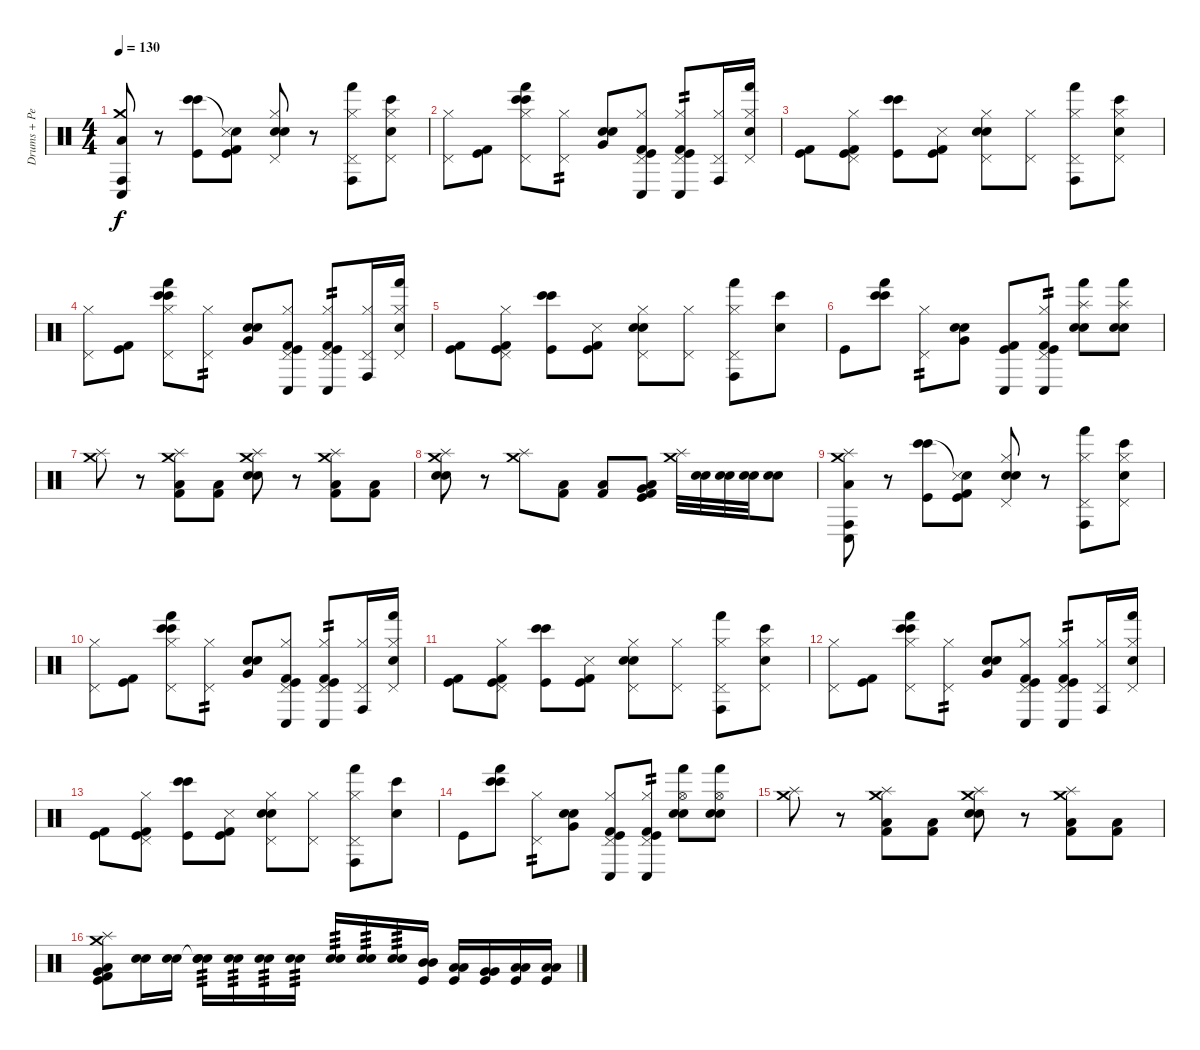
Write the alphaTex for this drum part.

\track ("Drums + Percussions (Dave Chavarri)" "Drums + Pe") {instrument percussion}
\staff {score}
\articulation defaults
\ts (4 4)
\tempo 130
\clef neutral
\ks c
("Crash medium (hit)" "Conga low (hit)" "Low Floor Tom (hit)" "Conga high (hit)").8{dy f} r.8 ("Bongo High (hit)" "Bongo High (hit)" "Kick (hit)").8 ("Snare (hit)"{t} "Snare (side stick) 3" "Kick (hit) 2" "Kick (hit)").8 ("Pedal Hi-Hat (hit)" "Hi-Hat (closed)" "Electric Snare (hit)" "Electric Snare (hit)").8 r.8 ("Pedal Hi-Hat (hit)" "Hi-Hat (closed)" "Hand (hit)" "Conga high (hit)").8 ("Pedal Hi-Hat (hit)" "Hi-Hat (closed)" "Electric Snare (hit)" "Bongo High (hit)").8 |
("Pedal Hi-Hat (hit)" "Hi-Hat (closed)").8 ("Kick (hit) 2" "Kick (hit)").8 ("Hi-Hat (closed)" "Pedal Hi-Hat (hit)" "Bongo High (hit)" "Bongo High (hit)" "Hand (hit)").8 ("Pedal Hi-Hat (hit)" "Hi-Hat (closed)").8{tp 2} ("Electric Snare (hit)" "Electric Snare (hit)" "Very Low Tom (hit)").8 ("Pedal Hi-Hat (hit)" "Hi-Hat (closed)" "Conga low (hit)" "Kick (hit) 2" "Kick (hit)").8 ("Pedal Hi-Hat (hit)" "Hi-Hat (closed)" "Conga low (hit)" "Kick (hit)" "Kick (hit) 2").8{tp 2} ("Pedal Hi-Hat (hit)" "Hi-Hat (closed)" "Conga high (hit)").16 ("Pedal Hi-Hat (hit)" "Hi-Hat (closed)" "Hand (hit)" "Electric Snare (hit)").16 |
("Kick (hit) 2" "Kick (hit)").8 ("Pedal Hi-Hat (hit)" "Hi-Hat (closed)" "Kick (hit) 2" "Kick (hit)").8 ("Bongo High (hit)" "Bongo High (hit)" "Kick (hit)").8 ("Snare (side stick) 3" "Kick (hit) 2" "Kick (hit)").8 ("Pedal Hi-Hat (hit)" "Hi-Hat (closed)" "Electric Snare (hit)" "Electric Snare (hit)").8 ("Pedal Hi-Hat (hit)" "Hi-Hat (closed)").8 ("Pedal Hi-Hat (hit)" "Hi-Hat (closed)" "Hand (hit)" "Conga high (hit)").8 ("Pedal Hi-Hat (hit)" "Hi-Hat (closed)" "Electric Snare (hit)" "Bongo High (hit)").8 |
("Pedal Hi-Hat (hit)" "Hi-Hat (closed)").8 ("Kick (hit) 2" "Kick (hit)").8 ("Pedal Hi-Hat (hit)" "Hi-Hat (closed)" "Bongo High (hit)" "Bongo High (hit)" "Hand (hit)").8 ("Pedal Hi-Hat (hit)" "Hi-Hat (closed)").8{tp 2} ("Electric Snare (hit)" "Electric Snare (hit)" "Very Low Tom (hit)").8 ("Pedal Hi-Hat (hit)" "Hi-Hat (closed)" "Conga low (hit)" "Kick (hit) 2" "Kick (hit)").8 ("Pedal Hi-Hat (hit)" "Hi-Hat (closed)" "Conga low (hit)" "Kick (hit)" "Kick (hit) 2").8{tp 2} ("Pedal Hi-Hat (hit)" "Hi-Hat (closed)" "Conga high (hit)").16 ("Pedal Hi-Hat (hit)" "Hi-Hat (closed)" "Hand (hit)" "Electric Snare (hit)").16 |
("Kick (hit) 2" "Kick (hit)").8 ("Pedal Hi-Hat (hit)" "Hi-Hat (closed)" "Kick (hit) 2" "Kick (hit)").8 ("Bongo High (hit)" "Bongo High (hit)" "Kick (hit)").8 ("Snare (side stick) 3" "Kick (hit) 2" "Kick (hit)").8 ("Pedal Hi-Hat (hit)" "Hi-Hat (closed)" "Electric Snare (hit)" "Electric Snare (hit)").8 ("Pedal Hi-Hat (hit)" "Hi-Hat (closed)").8 ("Pedal Hi-Hat (hit)" "Hi-Hat (closed)" "Hand (hit)" "Conga high (hit)").8 ("Electric Snare (hit)" "Bongo High (hit)").8 |
"Kick (hit)".8 ("Bongo High (hit)" "Bongo High (hit)" "Hand (hit)").8 ("Pedal Hi-Hat (hit)" "Hi-Hat (closed)").8{tp 2} ("Electric Snare (hit)" "Electric Snare (hit)" "Very Low Tom (hit)").8 ("Conga low (hit)" "Kick (hit) 2" "Kick (hit)").8 ("Pedal Hi-Hat (hit)" "Hi-Hat (closed)" "Conga low (hit)" "Kick (hit)" "Kick (hit) 2").8{tp 2} ("Splash (hit)" "Snare (hit) 2" "Electric Snare (hit)" "Hand (hit)").8 ("Splash (hit)" "Snare (hit) 2" "Electric Snare (hit)" "Hand (hit)").8 |
("Crash medium (hit)" "Splash (hit)").8 r.8 ("Crash medium (hit)" "Splash (hit)" "Low Floor Tom (hit)" "Kick (hit) 2").8 ("Low Floor Tom (hit)" "Kick (hit) 2").8 ("Crash medium (hit)" "Splash (hit)" "Snare (hit) 2" "Electric Snare (hit)").8 r.8 ("Crash medium (hit)" "Splash (hit)" "Low Floor Tom (hit)" "Kick (hit) 2").8 ("Low Floor Tom (hit)" "Kick (hit) 2").8 |
("Crash medium (hit)" "Splash (hit)" "Snare (hit) 2" "Electric Snare (hit)").8 r.8 ("Crash medium (hit)" "Splash (hit)").8 ("Low Floor Tom (hit)" "Kick (hit) 2").8 ("Low Floor Tom (hit)" "Kick (hit) 2").8 ("Very Low Tom (hit)" "Low Floor Tom (hit)" "Kick (hit)" "Kick (hit) 2").8 ("Crash medium (hit)" "Splash (hit)").32 ("Electric Snare (hit)" "Electric Snare (hit)").32 ("Electric Snare (hit)" "Electric Snare (hit)").32 ("Electric Snare (hit)" "Electric Snare (hit)").32 ("Snare (hit) 2" "Electric Snare (hit)").8 |
("Crash medium (hit)" "Splash (hit)" "Conga low (hit)" "Low Floor Tom (hit)" "Conga high (hit)").8 r.8 ("Bongo High (hit)" "Bongo High (hit)" "Kick (hit)").8 ("Snare (hit)"{t} "Snare (side stick) 3" "Kick (hit) 2" "Kick (hit)").8 ("Pedal Hi-Hat (hit)" "Hi-Hat (closed)" "Electric Snare (hit)" "Electric Snare (hit)").8 r.8 ("Pedal Hi-Hat (hit)" "Hi-Hat (closed)" "Hand (hit)" "Conga high (hit)").8 ("Pedal Hi-Hat (hit)" "Hi-Hat (closed)" "Electric Snare (hit)" "Bongo High (hit)").8 |
("Pedal Hi-Hat (hit)" "Hi-Hat (closed)").8 ("Kick (hit) 2" "Kick (hit)").8 ("Hi-Hat (closed)" "Pedal Hi-Hat (hit)" "Bongo High (hit)" "Bongo High (hit)" "Hand (hit)").8 ("Pedal Hi-Hat (hit)" "Hi-Hat (closed)").8{tp 2} ("Electric Snare (hit)" "Electric Snare (hit)" "Very Low Tom (hit)").8 ("Pedal Hi-Hat (hit)" "Hi-Hat (closed)" "Conga low (hit)" "Kick (hit) 2" "Kick (hit)").8 ("Pedal Hi-Hat (hit)" "Hi-Hat (closed)" "Conga low (hit)" "Kick (hit)" "Kick (hit) 2").8{tp 2} ("Pedal Hi-Hat (hit)" "Hi-Hat (closed)" "Conga high (hit)").16 ("Pedal Hi-Hat (hit)" "Hi-Hat (closed)" "Hand (hit)" "Electric Snare (hit)").16 |
("Kick (hit) 2" "Kick (hit)").8 ("Pedal Hi-Hat (hit)" "Hi-Hat (closed)" "Kick (hit) 2" "Kick (hit)").8 ("Bongo High (hit)" "Bongo High (hit)" "Kick (hit)").8 ("Snare (side stick) 3" "Kick (hit) 2" "Kick (hit)").8 ("Pedal Hi-Hat (hit)" "Hi-Hat (closed)" "Electric Snare (hit)" "Electric Snare (hit)").8 ("Pedal Hi-Hat (hit)" "Hi-Hat (closed)").8 ("Pedal Hi-Hat (hit)" "Hi-Hat (closed)" "Hand (hit)" "Conga high (hit)").8 ("Pedal Hi-Hat (hit)" "Hi-Hat (closed)" "Electric Snare (hit)" "Bongo High (hit)").8 |
("Pedal Hi-Hat (hit)" "Hi-Hat (closed)").8 ("Kick (hit) 2" "Kick (hit)").8 ("Pedal Hi-Hat (hit)" "Hi-Hat (closed)" "Bongo High (hit)" "Bongo High (hit)" "Hand (hit)").8 ("Pedal Hi-Hat (hit)" "Hi-Hat (closed)").8{tp 2} ("Electric Snare (hit)" "Electric Snare (hit)" "Very Low Tom (hit)").8 ("Pedal Hi-Hat (hit)" "Hi-Hat (closed)" "Conga low (hit)" "Kick (hit) 2" "Kick (hit)").8 ("Pedal Hi-Hat (hit)" "Hi-Hat (closed)" "Conga low (hit)" "Kick (hit)" "Kick (hit) 2").8{tp 2} ("Pedal Hi-Hat (hit)" "Hi-Hat (closed)" "Conga high (hit)").16 ("Pedal Hi-Hat (hit)" "Hi-Hat (closed)" "Hand (hit)" "Electric Snare (hit)").16 |
("Kick (hit) 2" "Kick (hit)").8 ("Pedal Hi-Hat (hit)" "Hi-Hat (closed)" "Kick (hit) 2" "Kick (hit)").8 ("Bongo High (hit)" "Bongo High (hit)" "Kick (hit)").8 ("Snare (side stick) 3" "Kick (hit) 2" "Kick (hit)").8 ("Pedal Hi-Hat (hit)" "Hi-Hat (closed)" "Electric Snare (hit)" "Electric Snare (hit)").8 ("Pedal Hi-Hat (hit)" "Hi-Hat (closed)").8 ("Pedal Hi-Hat (hit)" "Hi-Hat (closed)" "Hand (hit)" "Conga high (hit)").8 ("Electric Snare (hit)" "Bongo High (hit)").8 |
"Kick (hit)".8 ("Bongo High (hit)" "Bongo High (hit)" "Hand (hit)").8 ("Pedal Hi-Hat (hit)" "Hi-Hat (closed)").8{tp 2} ("Electric Snare (hit)" "Electric Snare (hit)" "Very Low Tom (hit)").8 ("Pedal Hi-Hat (hit)" "Hi-Hat (closed)" "Conga low (hit)" "Kick (hit) 2" "Kick (hit)").8 ("Pedal Hi-Hat (hit)" "Hi-Hat (closed)" "Conga low (hit)" "Kick (hit)" "Kick (hit) 2").8{tp 2} ("Hi-Hat (open)" "Snare (hit) 2" "Electric Snare (hit)" "Hand (hit)").8 ("Hi-Hat (open)" "Snare (hit) 2" "Electric Snare (hit)" "Hand (hit)").8 |
("Crash medium (hit)" "Splash (hit)").8 r.8 ("Crash medium (hit)" "Splash (hit)" "Low Floor Tom (hit)" "Kick (hit) 2").8 ("Low Floor Tom (hit)" "Kick (hit) 2").8 ("Crash medium (hit)" "Splash (hit)" "Snare (hit) 2" "Electric Snare (hit)").8 r.8 ("Crash medium (hit)" "Splash (hit)" "Low Floor Tom (hit)" "Kick (hit) 2").8 ("Low Floor Tom (hit)" "Kick (hit) 2").8 |
("Crash medium (hit)" "Splash (hit)" "Very Low Tom (hit)" "Low Floor Tom (hit)" "Kick (hit) 2" "Kick (hit)").8 ("Electric Snare (hit)" "Electric Snare (hit)").16{volume 16} ("Electric Snare (hit)" "Electric Snare (hit)").16{volume 14} ("Snare (hit)"{t} "Electric Snare (hit)" "Electric Snare (hit)").16{tp 3} ("Electric Snare (hit)" "Electric Snare (hit)").16{tp 3 volume 12} ("Electric Snare (hit)" "Electric Snare (hit)").16{tp 3} ("Electric Snare (hit)" "Electric Snare (hit)").16{tp 3 volume 13} ("Electric Snare (hit)" "Electric Snare (hit)").16{tp 3} ("Electric Snare (hit)" "Electric Snare (hit)").16{tp 3} ("Electric Snare (hit)" "Electric Snare (hit)").16{tp 3} ("Mid Tom (hit)" "Mid Tom (hit)" "Kick (hit)").16{volume 16} ("Low Tom (hit)" "Low Tom (hit)" "Kick (hit)").16 ("Very Low Tom (hit)" "Very Low Tom (hit)" "Kick (hit)").16 ("Low Floor Tom (hit)" "Low Floor Tom (hit)" "Kick (hit)").16 ("Low Floor Tom (hit)" "Low Floor Tom (hit)" "Kick (hit)").16
